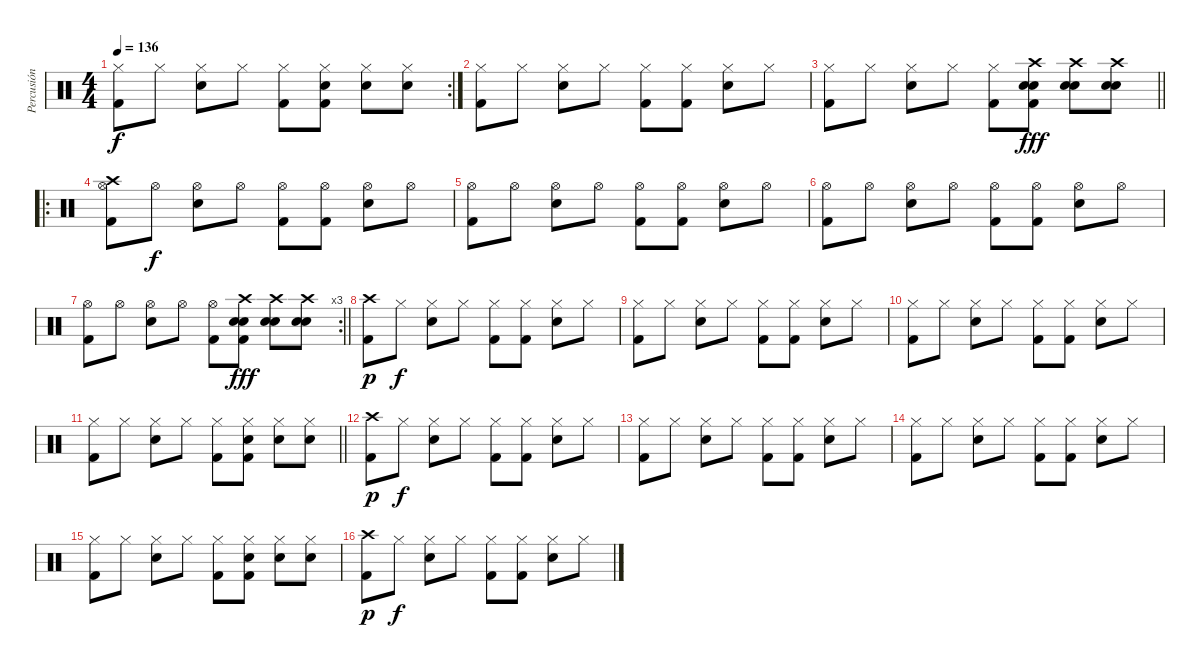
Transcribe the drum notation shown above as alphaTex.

\track ("Percusión" "Percusión") {instrument percussion}
\staff {score}
\articulation defaults
\rc 2
\ts (4 4)
\tempo 136
\clef neutral
\ks c
("Hi-Hat (closed)" "Kick (hit) 2").8{dy f} "Hi-Hat (closed)".8 ("Hi-Hat (closed)" "Snare (hit) 2").8 "Hi-Hat (closed)".8 ("Hi-Hat (closed)" "Kick (hit) 2").8 ("Hi-Hat (closed)" "Snare (hit) 2" "Kick (hit) 2").8 ("Hi-Hat (closed)" "Snare (hit) 2").8 ("Hi-Hat (closed)" "Snare (hit) 2").8 |
("Hi-Hat (closed)" "Kick (hit) 2").8 "Hi-Hat (closed)".8 ("Hi-Hat (closed)" "Snare (hit) 2").8 "Hi-Hat (closed)".8 ("Hi-Hat (closed)" "Kick (hit) 2").8 ("Hi-Hat (closed)" "Kick (hit) 2").8 ("Hi-Hat (closed)" "Snare (hit) 2").8 "Hi-Hat (closed)".8 |
\barLineRight lightlight
("Hi-Hat (closed)" "Kick (hit) 2").8 "Hi-Hat (closed)".8 ("Hi-Hat (closed)" "Snare (hit) 2").8 "Hi-Hat (closed)".8 ("Hi-Hat (closed)" "Kick (hit) 2").8 ("Crash high (hit)" "Electric Snare (hit)" "Snare (hit) 2" "Kick (hit) 2").8{dy fff} ("Crash high (hit)" "Electric Snare (hit)" "Snare (hit) 2").8 ("Crash high (hit)" "Electric Snare (hit)" "Snare (hit) 2").8 |
\ro
("Crash high (hit)" "Hi-Hat (open)" "Kick (hit) 2").8 "Hi-Hat (open)".8{dy f} ("Hi-Hat (open)" "Snare (hit) 2").8 "Hi-Hat (open)".8 ("Hi-Hat (open)" "Kick (hit) 2").8 ("Hi-Hat (open)" "Kick (hit) 2").8 ("Hi-Hat (open)" "Snare (hit) 2").8 "Hi-Hat (open)".8 |
("Hi-Hat (open)" "Kick (hit) 2").8 "Hi-Hat (open)".8 ("Hi-Hat (open)" "Snare (hit) 2").8 "Hi-Hat (open)".8 ("Hi-Hat (open)" "Kick (hit) 2").8 ("Hi-Hat (open)" "Kick (hit) 2").8 ("Hi-Hat (open)" "Snare (hit) 2").8 "Hi-Hat (open)".8 |
("Hi-Hat (open)" "Kick (hit) 2").8 "Hi-Hat (open)".8 ("Hi-Hat (open)" "Snare (hit) 2").8 "Hi-Hat (open)".8 ("Hi-Hat (open)" "Kick (hit) 2").8 ("Hi-Hat (open)" "Kick (hit) 2").8 ("Hi-Hat (open)" "Snare (hit) 2").8 "Hi-Hat (open)".8 |
\rc 3
\barLineRight lightlight
("Hi-Hat (open)" "Kick (hit) 2").8 "Hi-Hat (open)".8 ("Hi-Hat (open)" "Snare (hit) 2").8 "Hi-Hat (open)".8 ("Hi-Hat (open)" "Kick (hit) 2").8 ("Crash high (hit)" "Electric Snare (hit)" "Snare (hit) 2" "Kick (hit) 2").8{dy fff} ("Crash high (hit)" "Electric Snare (hit)" "Snare (hit) 2").8 ("Crash high (hit)" "Electric Snare (hit)" "Snare (hit) 2").8 |
("Crash high (hit)" "Kick (hit) 2").8{dy p} "Hi-Hat (closed)".8{dy f} ("Hi-Hat (closed)" "Snare (hit) 2").8 "Hi-Hat (closed)".8 ("Hi-Hat (closed)" "Kick (hit) 2").8 ("Hi-Hat (closed)" "Kick (hit) 2").8 ("Hi-Hat (closed)" "Snare (hit) 2").8 "Hi-Hat (closed)".8 |
("Hi-Hat (closed)" "Kick (hit) 2").8 "Hi-Hat (closed)".8 ("Hi-Hat (closed)" "Snare (hit) 2").8 "Hi-Hat (closed)".8 ("Hi-Hat (closed)" "Kick (hit) 2").8 ("Hi-Hat (closed)" "Kick (hit) 2").8 ("Hi-Hat (closed)" "Snare (hit) 2").8 "Hi-Hat (closed)".8 |
("Hi-Hat (closed)" "Kick (hit) 2").8 "Hi-Hat (closed)".8 ("Hi-Hat (closed)" "Snare (hit) 2").8 "Hi-Hat (closed)".8 ("Hi-Hat (closed)" "Kick (hit) 2").8 ("Hi-Hat (closed)" "Kick (hit) 2").8 ("Hi-Hat (closed)" "Snare (hit) 2").8 "Hi-Hat (closed)".8 |
\barLineRight lightlight
("Hi-Hat (closed)" "Kick (hit) 2").8 "Hi-Hat (closed)".8 ("Hi-Hat (closed)" "Snare (hit) 2").8 "Hi-Hat (closed)".8 ("Hi-Hat (closed)" "Kick (hit) 2").8 ("Hi-Hat (closed)" "Snare (hit) 2" "Kick (hit) 2").8 ("Hi-Hat (closed)" "Snare (hit) 2").8 ("Hi-Hat (closed)" "Snare (hit) 2").8 |
("Crash high (hit)" "Kick (hit) 2").8{dy p} "Hi-Hat (closed)".8{dy f} ("Hi-Hat (closed)" "Snare (hit) 2").8 "Hi-Hat (closed)".8 ("Hi-Hat (closed)" "Kick (hit) 2").8 ("Hi-Hat (closed)" "Kick (hit) 2").8 ("Hi-Hat (closed)" "Snare (hit) 2").8 "Hi-Hat (closed)".8 |
("Hi-Hat (closed)" "Kick (hit) 2").8 "Hi-Hat (closed)".8 ("Hi-Hat (closed)" "Snare (hit) 2").8 "Hi-Hat (closed)".8 ("Hi-Hat (closed)" "Kick (hit) 2").8 ("Hi-Hat (closed)" "Kick (hit) 2").8 ("Hi-Hat (closed)" "Snare (hit) 2").8 "Hi-Hat (closed)".8 |
("Hi-Hat (closed)" "Kick (hit) 2").8 "Hi-Hat (closed)".8 ("Hi-Hat (closed)" "Snare (hit) 2").8 "Hi-Hat (closed)".8 ("Hi-Hat (closed)" "Kick (hit) 2").8 ("Hi-Hat (closed)" "Kick (hit) 2").8 ("Hi-Hat (closed)" "Snare (hit) 2").8 "Hi-Hat (closed)".8 |
("Hi-Hat (closed)" "Kick (hit) 2").8 "Hi-Hat (closed)".8 ("Hi-Hat (closed)" "Snare (hit) 2").8 "Hi-Hat (closed)".8 ("Hi-Hat (closed)" "Kick (hit) 2").8 ("Hi-Hat (closed)" "Snare (hit) 2" "Kick (hit) 2").8 ("Hi-Hat (closed)" "Snare (hit) 2").8 ("Hi-Hat (closed)" "Snare (hit) 2").8 |
("Crash high (hit)" "Kick (hit) 2").8{dy p} "Hi-Hat (closed)".8{dy f} ("Hi-Hat (closed)" "Snare (hit) 2").8 "Hi-Hat (closed)".8 ("Hi-Hat (closed)" "Kick (hit) 2").8 ("Hi-Hat (closed)" "Kick (hit) 2").8 ("Hi-Hat (closed)" "Snare (hit) 2").8 "Hi-Hat (closed)".8
